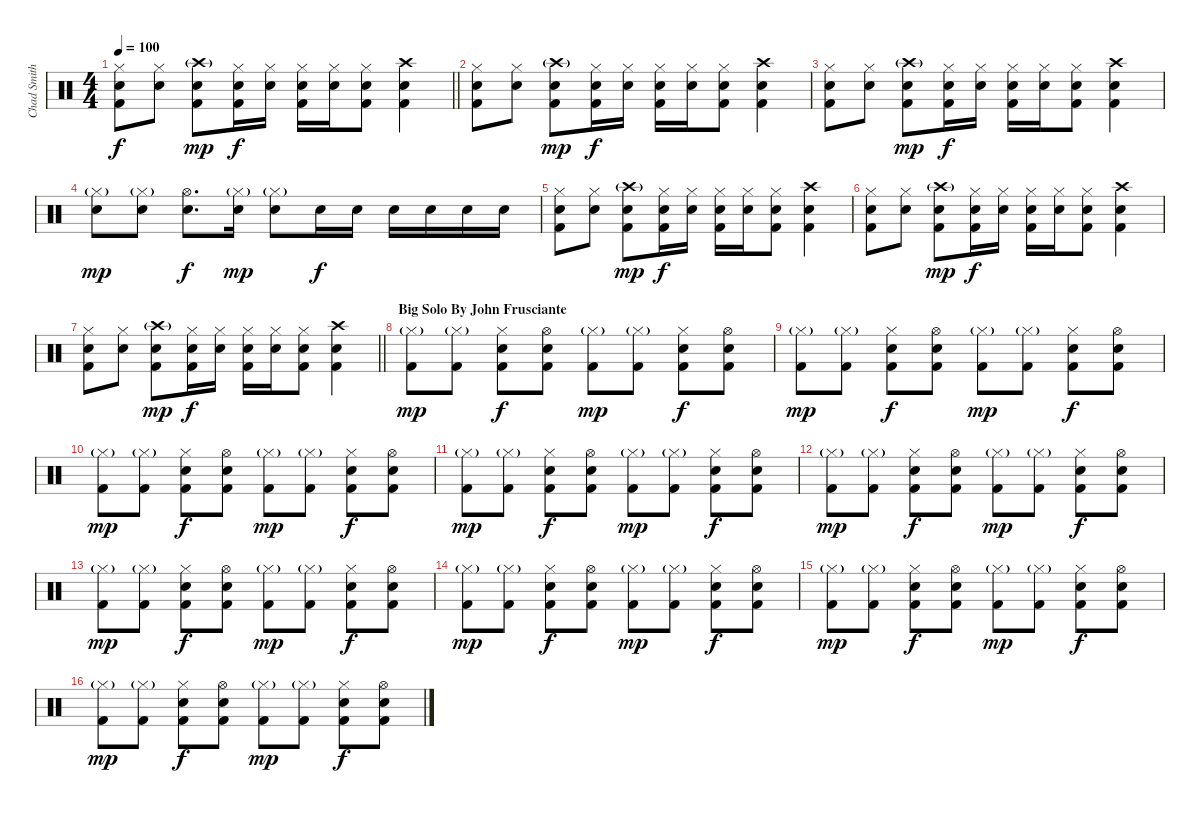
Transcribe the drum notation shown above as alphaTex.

\track ("Chad Smith - Drums" "Chad Smith") {instrument percussion}
\staff {score}
\articulation defaults
\ts (4 4)
\tempo 100
\clef neutral
\barLineRight lightlight
\ks c
("Hi-Hat (closed)" "Electric Snare (hit)" "Kick (hit) 2").8{dy f} ("Hi-Hat (closed)" "Electric Snare (hit)").8 ("Crash high (hit)"{g} "Electric Snare (hit)" "Kick (hit) 2").8{dy mp} ("Hi-Hat (closed)" "Electric Snare (hit)" "Kick (hit) 2").16{dy f} ("Hi-Hat (closed)" "Electric Snare (hit)").16 ("Hi-Hat (closed)" "Electric Snare (hit)" "Kick (hit) 2").16 ("Hi-Hat (closed)" "Electric Snare (hit)").16 ("Hi-Hat (closed)" "Electric Snare (hit)" "Kick (hit) 2").8 ("Crash high (hit)" "Electric Snare (hit)" "Kick (hit) 2").4 |
("Hi-Hat (closed)" "Electric Snare (hit)" "Kick (hit) 2").8 ("Hi-Hat (closed)" "Electric Snare (hit)").8 ("Crash high (hit)"{g} "Electric Snare (hit)" "Kick (hit) 2").8{dy mp} ("Hi-Hat (closed)" "Electric Snare (hit)" "Kick (hit) 2").16{dy f} ("Hi-Hat (closed)" "Electric Snare (hit)").16 ("Hi-Hat (closed)" "Electric Snare (hit)" "Kick (hit) 2").16 ("Hi-Hat (closed)" "Electric Snare (hit)").16 ("Hi-Hat (closed)" "Electric Snare (hit)" "Kick (hit) 2").8 ("Crash high (hit)" "Electric Snare (hit)" "Kick (hit) 2").4 |
("Hi-Hat (closed)" "Electric Snare (hit)" "Kick (hit) 2").8 ("Hi-Hat (closed)" "Electric Snare (hit)").8 ("Crash high (hit)"{g} "Electric Snare (hit)" "Kick (hit) 2").8{dy mp} ("Hi-Hat (closed)" "Electric Snare (hit)" "Kick (hit) 2").16{dy f} ("Hi-Hat (closed)" "Electric Snare (hit)").16 ("Hi-Hat (closed)" "Electric Snare (hit)" "Kick (hit) 2").16 ("Hi-Hat (closed)" "Electric Snare (hit)").16 ("Hi-Hat (closed)" "Electric Snare (hit)" "Kick (hit) 2").8 ("Crash high (hit)" "Electric Snare (hit)" "Kick (hit) 2").4 |
("Hi-Hat (closed)"{g} "Snare (hit) 2").8{dy mp} ("Hi-Hat (closed)"{g} "Snare (hit) 2").8 ("Hi-Hat (open)" "Snare (hit) 2").8{d dy f} ("Hi-Hat (closed)"{g} "Snare (hit) 2").16{dy mp} ("Hi-Hat (closed)"{g} "Snare (hit) 2").8 "Electric Snare (hit)".16{dy f} "Electric Snare (hit)".16 "Electric Snare (hit)".16 "Electric Snare (hit)".16 "Electric Snare (hit)".16 "Electric Snare (hit)".16 |
("Hi-Hat (closed)" "Electric Snare (hit)" "Kick (hit) 2").8 ("Hi-Hat (closed)" "Electric Snare (hit)").8 ("Crash high (hit)"{g} "Electric Snare (hit)" "Kick (hit) 2").8{dy mp} ("Hi-Hat (closed)" "Electric Snare (hit)" "Kick (hit) 2").16{dy f} ("Hi-Hat (closed)" "Electric Snare (hit)").16 ("Hi-Hat (closed)" "Electric Snare (hit)" "Kick (hit) 2").16 ("Hi-Hat (closed)" "Electric Snare (hit)").16 ("Hi-Hat (closed)" "Electric Snare (hit)" "Kick (hit) 2").8 ("Crash high (hit)" "Electric Snare (hit)" "Kick (hit) 2").4 |
("Hi-Hat (closed)" "Electric Snare (hit)" "Kick (hit) 2").8 ("Hi-Hat (closed)" "Electric Snare (hit)").8 ("Crash high (hit)"{g} "Electric Snare (hit)" "Kick (hit) 2").8{dy mp} ("Hi-Hat (closed)" "Electric Snare (hit)" "Kick (hit) 2").16{dy f} ("Hi-Hat (closed)" "Electric Snare (hit)").16 ("Hi-Hat (closed)" "Electric Snare (hit)" "Kick (hit) 2").16 ("Hi-Hat (closed)" "Electric Snare (hit)").16 ("Hi-Hat (closed)" "Electric Snare (hit)" "Kick (hit) 2").8 ("Crash high (hit)" "Electric Snare (hit)" "Kick (hit) 2").4 |
\barLineRight lightlight
("Hi-Hat (closed)" "Electric Snare (hit)" "Kick (hit) 2").8 ("Hi-Hat (closed)" "Electric Snare (hit)").8 ("Crash high (hit)"{g} "Electric Snare (hit)" "Kick (hit) 2").8{dy mp} ("Hi-Hat (closed)" "Electric Snare (hit)" "Kick (hit) 2").16{dy f} ("Hi-Hat (closed)" "Electric Snare (hit)").16 ("Hi-Hat (closed)" "Electric Snare (hit)" "Kick (hit) 2").16 ("Hi-Hat (closed)" "Electric Snare (hit)").16 ("Hi-Hat (closed)" "Electric Snare (hit)" "Kick (hit) 2").8 ("Crash high (hit)" "Electric Snare (hit)" "Kick (hit) 2").4 |
\section ("" "Big Solo By John Frusciante")
("Hi-Hat (closed)"{g} "Kick (hit) 2").8{dy mp} ("Hi-Hat (closed)"{g} "Kick (hit) 2").8 ("Hi-Hat (closed)" "Electric Snare (hit)" "Kick (hit) 2").8{dy f} ("Hi-Hat (open)" "Electric Snare (hit)" "Kick (hit) 2").8 ("Hi-Hat (closed)"{g} "Kick (hit) 2").8{dy mp} ("Hi-Hat (closed)"{g} "Kick (hit) 2").8 ("Hi-Hat (closed)" "Electric Snare (hit)" "Kick (hit) 2").8{dy f} ("Hi-Hat (open)" "Electric Snare (hit)" "Kick (hit) 2").8 |
("Hi-Hat (closed)"{g} "Kick (hit) 2").8{dy mp} ("Hi-Hat (closed)"{g} "Kick (hit) 2").8 ("Hi-Hat (closed)" "Electric Snare (hit)" "Kick (hit) 2").8{dy f} ("Hi-Hat (open)" "Electric Snare (hit)" "Kick (hit) 2").8 ("Hi-Hat (closed)"{g} "Kick (hit) 2").8{dy mp} ("Hi-Hat (closed)"{g} "Kick (hit) 2").8 ("Hi-Hat (closed)" "Electric Snare (hit)" "Kick (hit) 2").8{dy f} ("Hi-Hat (open)" "Electric Snare (hit)" "Kick (hit) 2").8 |
("Hi-Hat (closed)"{g} "Kick (hit) 2").8{dy mp} ("Hi-Hat (closed)"{g} "Kick (hit) 2").8 ("Hi-Hat (closed)" "Electric Snare (hit)" "Kick (hit) 2").8{dy f} ("Hi-Hat (open)" "Electric Snare (hit)" "Kick (hit) 2").8 ("Hi-Hat (closed)"{g} "Kick (hit) 2").8{dy mp} ("Hi-Hat (closed)"{g} "Kick (hit) 2").8 ("Hi-Hat (closed)" "Electric Snare (hit)" "Kick (hit) 2").8{dy f} ("Hi-Hat (open)" "Electric Snare (hit)" "Kick (hit) 2").8 |
("Hi-Hat (closed)"{g} "Kick (hit) 2").8{dy mp} ("Hi-Hat (closed)"{g} "Kick (hit) 2").8 ("Hi-Hat (closed)" "Electric Snare (hit)" "Kick (hit) 2").8{dy f} ("Hi-Hat (open)" "Electric Snare (hit)" "Kick (hit) 2").8 ("Hi-Hat (closed)"{g} "Kick (hit) 2").8{dy mp} ("Hi-Hat (closed)"{g} "Kick (hit) 2").8 ("Hi-Hat (closed)" "Electric Snare (hit)" "Kick (hit) 2").8{dy f} ("Hi-Hat (open)" "Electric Snare (hit)" "Kick (hit) 2").8 |
("Hi-Hat (closed)"{g} "Kick (hit) 2").8{dy mp} ("Hi-Hat (closed)"{g} "Kick (hit) 2").8 ("Hi-Hat (closed)" "Electric Snare (hit)" "Kick (hit) 2").8{dy f} ("Hi-Hat (open)" "Electric Snare (hit)" "Kick (hit) 2").8 ("Hi-Hat (closed)"{g} "Kick (hit) 2").8{dy mp} ("Hi-Hat (closed)"{g} "Kick (hit) 2").8 ("Hi-Hat (closed)" "Electric Snare (hit)" "Kick (hit) 2").8{dy f} ("Hi-Hat (open)" "Electric Snare (hit)" "Kick (hit) 2").8 |
("Hi-Hat (closed)"{g} "Kick (hit) 2").8{dy mp} ("Hi-Hat (closed)"{g} "Kick (hit) 2").8 ("Hi-Hat (closed)" "Electric Snare (hit)" "Kick (hit) 2").8{dy f} ("Hi-Hat (open)" "Electric Snare (hit)" "Kick (hit) 2").8 ("Hi-Hat (closed)"{g} "Kick (hit) 2").8{dy mp} ("Hi-Hat (closed)"{g} "Kick (hit) 2").8 ("Hi-Hat (closed)" "Electric Snare (hit)" "Kick (hit) 2").8{dy f} ("Hi-Hat (open)" "Electric Snare (hit)" "Kick (hit) 2").8 |
("Hi-Hat (closed)"{g} "Kick (hit) 2").8{dy mp} ("Hi-Hat (closed)"{g} "Kick (hit) 2").8 ("Hi-Hat (closed)" "Electric Snare (hit)" "Kick (hit) 2").8{dy f} ("Hi-Hat (open)" "Electric Snare (hit)" "Kick (hit) 2").8 ("Hi-Hat (closed)"{g} "Kick (hit) 2").8{dy mp} ("Hi-Hat (closed)"{g} "Kick (hit) 2").8 ("Hi-Hat (closed)" "Electric Snare (hit)" "Kick (hit) 2").8{dy f} ("Hi-Hat (open)" "Electric Snare (hit)" "Kick (hit) 2").8 |
("Hi-Hat (closed)"{g} "Kick (hit) 2").8{dy mp} ("Hi-Hat (closed)"{g} "Kick (hit) 2").8 ("Hi-Hat (closed)" "Electric Snare (hit)" "Kick (hit) 2").8{dy f} ("Hi-Hat (open)" "Electric Snare (hit)" "Kick (hit) 2").8 ("Hi-Hat (closed)"{g} "Kick (hit) 2").8{dy mp} ("Hi-Hat (closed)"{g} "Kick (hit) 2").8 ("Hi-Hat (closed)" "Electric Snare (hit)" "Kick (hit) 2").8{dy f} ("Hi-Hat (open)" "Electric Snare (hit)" "Kick (hit) 2").8 |
("Hi-Hat (closed)"{g} "Kick (hit) 2").8{dy mp} ("Hi-Hat (closed)"{g} "Kick (hit) 2").8 ("Hi-Hat (closed)" "Electric Snare (hit)" "Kick (hit) 2").8{dy f} ("Hi-Hat (open)" "Electric Snare (hit)" "Kick (hit) 2").8 ("Hi-Hat (closed)"{g} "Kick (hit) 2").8{dy mp} ("Hi-Hat (closed)"{g} "Kick (hit) 2").8 ("Hi-Hat (closed)" "Electric Snare (hit)" "Kick (hit) 2").8{dy f} ("Hi-Hat (open)" "Electric Snare (hit)" "Kick (hit) 2").8
